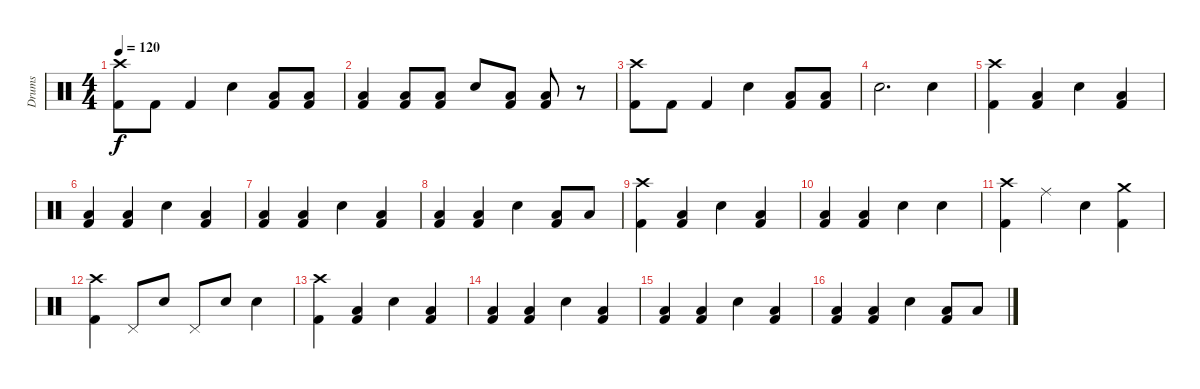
\track ("Drums" "Drums") {instrument percussion}
\staff {score}
\articulation defaults
\ts (4 4)
\tempo 120
\clef neutral
\ks c
("Crash high (hit)" "Kick (hit) 2").8{dy f} "Kick (hit) 2".8 "Kick (hit) 2".4 "Snare (hit) 2".4 ("Low Floor Tom (hit)" "Kick (hit) 2").8 ("Low Floor Tom (hit)" "Kick (hit) 2").8 |
("Low Floor Tom (hit)" "Kick (hit) 2").4 ("Low Floor Tom (hit)" "Kick (hit) 2").8 ("Low Floor Tom (hit)" "Kick (hit) 2").8 "Snare (hit) 2".8 ("Low Floor Tom (hit)" "Kick (hit) 2").8 ("Low Floor Tom (hit)" "Kick (hit) 2").8 r.8 |
("Crash high (hit)" "Kick (hit) 2").8 "Kick (hit) 2".8 "Kick (hit) 2".4 "Snare (hit) 2".4 ("Low Floor Tom (hit)" "Kick (hit) 2").8 ("Low Floor Tom (hit)" "Kick (hit) 2").8 |
"Snare (hit) 2".2{d} "Snare (hit) 2".4 |
("Kick (hit) 2" "Crash high (hit)").4 ("Kick (hit) 2" "Low Floor Tom (hit)").4 "Snare (hit) 2".4 ("Low Floor Tom (hit)" "Kick (hit) 2").4 |
("Low Floor Tom (hit)" "Kick (hit) 2").4 ("Low Floor Tom (hit)" "Kick (hit) 2").4 "Snare (hit) 2".4 ("Low Floor Tom (hit)" "Kick (hit) 2").4 |
("Kick (hit) 2" "Low Floor Tom (hit)").4 ("Kick (hit) 2" "Low Floor Tom (hit)").4 "Snare (hit) 2".4 ("Low Floor Tom (hit)" "Kick (hit) 2").4 |
("Low Floor Tom (hit)" "Kick (hit) 2").4 ("Low Floor Tom (hit)" "Kick (hit) 2").4 "Snare (hit) 2".4 ("Low Tom (hit)" "Kick (hit) 2").8 "Low Floor Tom (hit)".8 |
("Kick (hit) 2" "Crash high (hit)").4 ("Kick (hit) 2" "Low Floor Tom (hit)").4 "Snare (hit) 2".4 ("Low Floor Tom (hit)" "Kick (hit) 2").4 |
("Low Floor Tom (hit)" "Kick (hit) 2").4 ("Low Floor Tom (hit)" "Kick (hit) 2").4 "Snare (hit) 2".4 "Snare (hit) 2".4 |
("Kick (hit) 2" "Crash high (hit)").4 "Ride (middle)".4 "Snare (hit) 2".4 ("Kick (hit) 2" "Crash medium (hit)").4 |
("Crash high (hit)" "Kick (hit) 2").4 "Pedal Hi-Hat (hit)".8 "Snare (hit) 2".8 "Pedal Hi-Hat (hit)".8 "Snare (hit) 2".8 "Snare (hit) 2".4 |
("Kick (hit) 2" "Crash high (hit)").4 ("Kick (hit) 2" "Low Floor Tom (hit)").4 "Snare (hit) 2".4 ("Low Floor Tom (hit)" "Kick (hit) 2").4 |
("Low Floor Tom (hit)" "Kick (hit) 2").4 ("Low Floor Tom (hit)" "Kick (hit) 2").4 "Snare (hit) 2".4 ("Low Floor Tom (hit)" "Kick (hit) 2").4 |
("Kick (hit) 2" "Low Floor Tom (hit)").4 ("Kick (hit) 2" "Low Floor Tom (hit)").4 "Snare (hit) 2".4 ("Low Floor Tom (hit)" "Kick (hit) 2").4 |
("Low Floor Tom (hit)" "Kick (hit) 2").4 ("Low Floor Tom (hit)" "Kick (hit) 2").4 "Snare (hit) 2".4 ("Low Tom (hit)" "Kick (hit) 2").8 "Low Floor Tom (hit)".8
